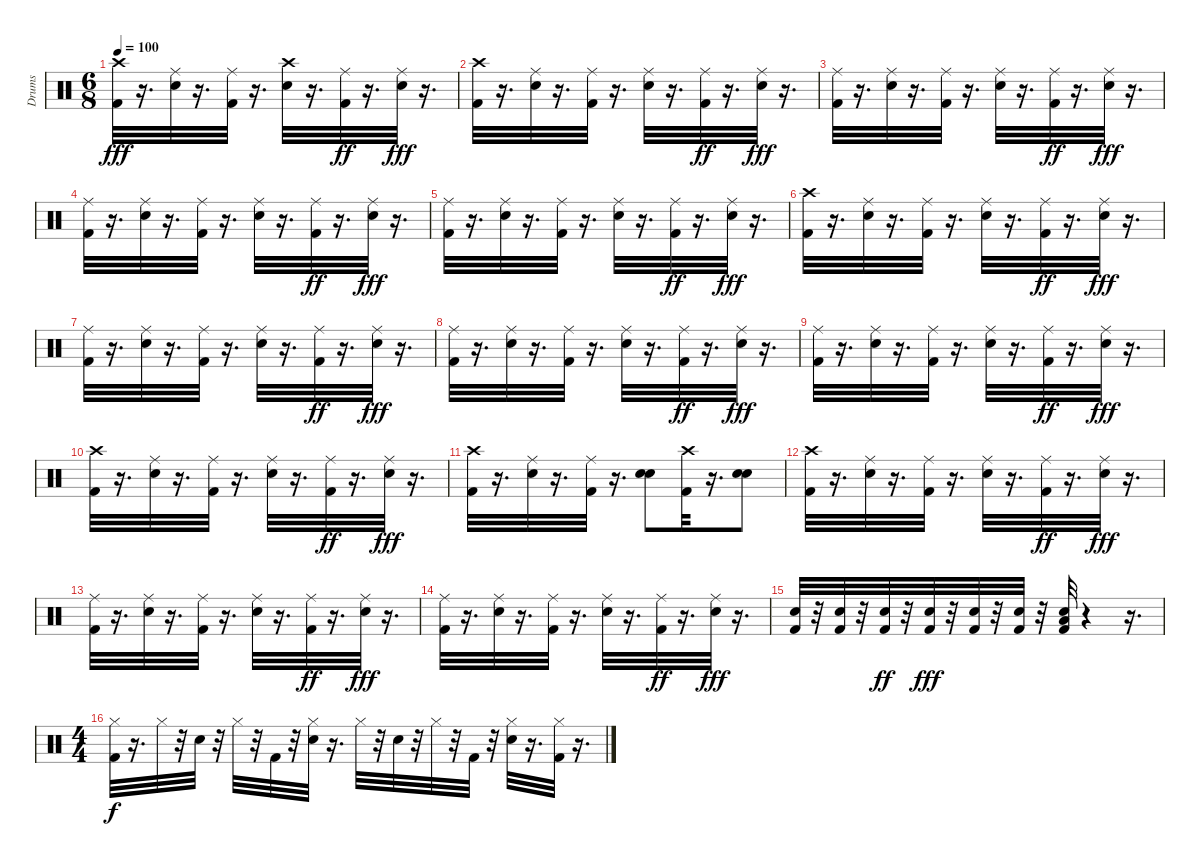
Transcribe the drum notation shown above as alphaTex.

\track ("Drums               " "Drums     ") {instrument percussion}
\staff {score}
\articulation defaults
\ts (6 8)
\tempo 100
\clef neutral
\ks c
("Crash high (hit)" "Kick (hit) 2").32{dy fff} r.16{d} ("Ride (middle)" "Electric Snare (hit)").32 r.16{d} ("Ride (middle)" "Kick (hit) 2").32 r.16{d} ("Crash high (hit)" "Electric Snare (hit)").32 r.16{d} ("Kick (hit) 2" "Ride (middle)").32{dy ff} r.16{d} ("Electric Snare (hit)" "Ride (middle)").32{dy fff} r.16{d} |
("Crash high (hit)" "Kick (hit) 2").32 r.16{d} ("Ride (middle)" "Electric Snare (hit)").32 r.16{d} ("Ride (middle)" "Kick (hit) 2").32 r.16{d} ("Ride (middle)" "Electric Snare (hit)").32 r.16{d} ("Kick (hit) 2" "Ride (middle)").32{dy ff} r.16{d} ("Electric Snare (hit)" "Ride (middle)").32{dy fff} r.16{d} |
("Ride (middle)" "Kick (hit) 2").32 r.16{d} ("Ride (middle)" "Electric Snare (hit)").32 r.16{d} ("Ride (middle)" "Kick (hit) 2").32 r.16{d} ("Ride (middle)" "Electric Snare (hit)").32 r.16{d} ("Kick (hit) 2" "Ride (middle)").32{dy ff} r.16{d} ("Electric Snare (hit)" "Ride (middle)").32{dy fff} r.16{d} |
("Ride (middle)" "Kick (hit) 2").32 r.16{d} ("Ride (middle)" "Electric Snare (hit)").32 r.16{d} ("Ride (middle)" "Kick (hit) 2").32 r.16{d} ("Ride (middle)" "Electric Snare (hit)").32 r.16{d} ("Kick (hit) 2" "Ride (middle)").32{dy ff} r.16{d} ("Electric Snare (hit)" "Ride (middle)").32{dy fff} r.16{d} |
("Ride (middle)" "Kick (hit) 2").32 r.16{d} ("Ride (middle)" "Electric Snare (hit)").32 r.16{d} ("Ride (middle)" "Kick (hit) 2").32 r.16{d} ("Ride (middle)" "Electric Snare (hit)").32 r.16{d} ("Kick (hit) 2" "Ride (middle)").32{dy ff} r.16{d} ("Electric Snare (hit)" "Ride (middle)").32{dy fff} r.16{d} |
("Crash high (hit)" "Kick (hit) 2").32 r.16{d} ("Ride (middle)" "Electric Snare (hit)").32 r.16{d} ("Ride (middle)" "Kick (hit) 2").32 r.16{d} ("Ride (middle)" "Electric Snare (hit)").32 r.16{d} ("Kick (hit) 2" "Ride (middle)").32{dy ff} r.16{d} ("Electric Snare (hit)" "Ride (middle)").32{dy fff} r.16{d} |
("Ride (middle)" "Kick (hit) 2").32 r.16{d} ("Ride (middle)" "Electric Snare (hit)").32 r.16{d} ("Ride (middle)" "Kick (hit) 2").32 r.16{d} ("Ride (middle)" "Electric Snare (hit)").32 r.16{d} ("Kick (hit) 2" "Ride (middle)").32{dy ff} r.16{d} ("Electric Snare (hit)" "Ride (middle)").32{dy fff} r.16{d} |
("Ride (middle)" "Kick (hit) 2").32 r.16{d} ("Ride (middle)" "Electric Snare (hit)").32 r.16{d} ("Ride (middle)" "Kick (hit) 2").32 r.16{d} ("Ride (middle)" "Electric Snare (hit)").32 r.16{d} ("Kick (hit) 2" "Ride (middle)").32{dy ff} r.16{d} ("Electric Snare (hit)" "Ride (middle)").32{dy fff} r.16{d} |
("Ride (middle)" "Kick (hit) 2").32 r.16{d} ("Ride (middle)" "Electric Snare (hit)").32 r.16{d} ("Ride (middle)" "Kick (hit) 2").32 r.16{d} ("Ride (middle)" "Electric Snare (hit)").32 r.16{d} ("Kick (hit) 2" "Ride (middle)").32{dy ff} r.16{d} ("Electric Snare (hit)" "Ride (middle)").32{dy fff} r.16{d} |
("Crash high (hit)" "Kick (hit) 2").32 r.16{d} ("Ride (middle)" "Electric Snare (hit)").32 r.16{d} ("Ride (middle)" "Kick (hit) 2").32 r.16{d} ("Ride (middle)" "Electric Snare (hit)").32 r.16{d} ("Kick (hit) 2" "Ride (middle)").32{dy ff} r.16{d} ("Electric Snare (hit)" "Ride (middle)").32{dy fff} r.16{d} |
("Crash high (hit)" "Kick (hit) 2").32 r.16{d} ("Ride (middle)" "Electric Snare (hit)").32 r.16{d} ("Ride (middle)" "Kick (hit) 2").32 r.16{d} ("Electric Snare (hit)" "Electric Snare (hit)").8 ("Crash high (hit)" "Kick (hit) 2").32 r.16{d} ("Electric Snare (hit)" "Electric Snare (hit)").8 |
("Crash high (hit)" "Kick (hit) 2").32 r.16{d} ("Ride (middle)" "Electric Snare (hit)").32 r.16{d} ("Ride (middle)" "Kick (hit) 2").32 r.16{d} ("Ride (middle)" "Electric Snare (hit)").32 r.16{d} ("Kick (hit) 2" "Ride (middle)").32{dy ff} r.16{d} ("Electric Snare (hit)" "Ride (middle)").32{dy fff} r.16{d} |
("Ride (middle)" "Kick (hit) 2").32 r.16{d} ("Ride (middle)" "Electric Snare (hit)").32 r.16{d} ("Ride (middle)" "Kick (hit) 2").32 r.16{d} ("Ride (middle)" "Electric Snare (hit)").32 r.16{d} ("Kick (hit) 2" "Ride (middle)").32{dy ff} r.16{d} ("Electric Snare (hit)" "Ride (middle)").32{dy fff} r.16{d} |
("Ride (middle)" "Kick (hit) 2").32 r.16{d} ("Ride (middle)" "Electric Snare (hit)").32 r.16{d} ("Ride (middle)" "Kick (hit) 2").32 r.16{d} ("Ride (middle)" "Electric Snare (hit)").32 r.16{d} ("Kick (hit) 2" "Ride (middle)").32{dy ff} r.16{d} ("Electric Snare (hit)" "Ride (middle)").32{dy fff} r.16{d} |
("Kick (hit) 2" "Electric Snare (hit)").32 r.32 ("Electric Snare (hit)" "Kick (hit) 2").32 r.32 ("Kick (hit) 2" "Electric Snare (hit)").32{dy ff} r.32 ("Electric Snare (hit)" "Kick (hit) 2").32{dy fff} r.32 ("Electric Snare (hit)" "Kick (hit) 2").32 r.32 ("Electric Snare (hit)" "Kick (hit) 2").32 r.32 ("Electric Snare (hit)" "Low Tom (hit)" "Kick (hit) 2").32 r.4 r.16{d} |
\ts (4 4)
("Hi-Hat (closed)" "Kick (hit) 2").32{dy f} r.16{d} "Hi-Hat (closed)".32 r.32 "Electric Snare (hit)".32 r.32 "Hi-Hat (closed)".32 r.32 "Kick (hit) 2".32 r.32 ("Hi-Hat (closed)" "Electric Snare (hit)").32 r.16{d} "Hi-Hat (closed)".32 r.32 "Electric Snare (hit)".32 r.32 "Hi-Hat (closed)".32 r.32 "Kick (hit) 2".32 r.32 ("Hi-Hat (closed)" "Electric Snare (hit)").32 r.16{d} ("Hi-Hat (closed)" "Kick (hit) 2").32 r.16{d}
